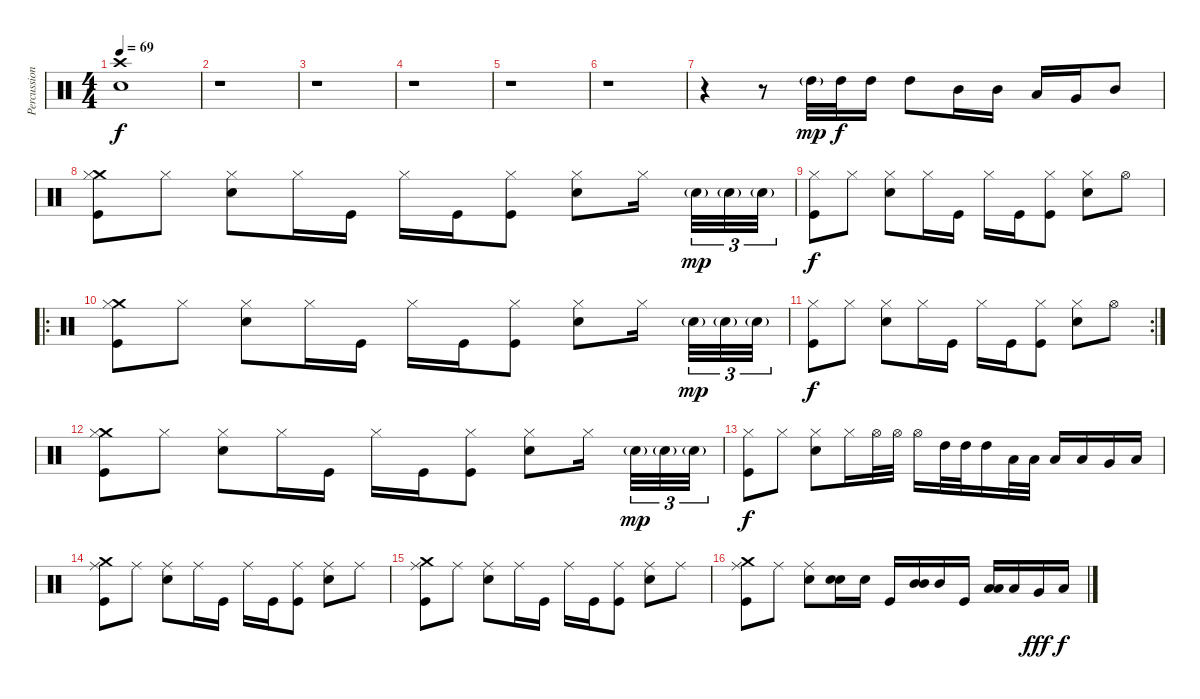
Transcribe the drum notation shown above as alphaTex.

\track ("Percussion" "Percussion") {instrument percussion}
\staff {score}
\articulation defaults
\ts (4 4)
\tempo 69
\clef neutral
\ks c
("Crash high (hit)" "Electric Snare (hit)").1{dy f} |
r.1 |
r.1 |
r.1 |
r.1 |
r.1 |
r.4 r.8 "High Tom (hit)"{g}.32{dy mp} "High Tom (hit)".32{dy f} "High Tom (hit)".16 "High Tom (hit)".8 "Mid Tom (hit)".16 "Mid Tom (hit)".16 "Low Tom (hit)".16 "Very Low Tom (hit)".16 "Mid Tom (hit)".8 |
("Crash medium (hit)" "Kick (hit)" "Hi-Hat (closed)").8 "Hi-Hat (closed)".8 ("Electric Snare (hit)" "Hi-Hat (closed)").8 "Hi-Hat (closed)".16 "Kick (hit)".16 "Hi-Hat (closed)".16 "Kick (hit)".16 ("Kick (hit)" "Hi-Hat (closed)").8 ("Electric Snare (hit)" "Hi-Hat (closed)").8 "Hi-Hat (closed)".16{beam splitsecondary} "Electric Snare (hit)"{g}.32{tu (3 2) dy mp} "Electric Snare (hit)"{g}.32{tu (3 2)} "Electric Snare (hit)"{g}.32{tu (3 2)} |
("Kick (hit)" "Hi-Hat (closed)").8{dy f} "Hi-Hat (closed)".8 ("Electric Snare (hit)" "Hi-Hat (closed)").8 "Hi-Hat (closed)".16 "Kick (hit)".16 "Hi-Hat (closed)".16 "Kick (hit)".16 ("Kick (hit)" "Hi-Hat (closed)").8 ("Electric Snare (hit)" "Hi-Hat (closed)").8 "Hi-Hat (open)".8 |
\ro
("Crash medium (hit)" "Kick (hit)" "Hi-Hat (closed)").8 "Hi-Hat (closed)".8 ("Electric Snare (hit)" "Hi-Hat (closed)").8 "Hi-Hat (closed)".16 "Kick (hit)".16 "Hi-Hat (closed)".16 "Kick (hit)".16 ("Kick (hit)" "Hi-Hat (closed)").8 ("Electric Snare (hit)" "Hi-Hat (closed)").8 "Hi-Hat (closed)".16{beam splitsecondary} "Electric Snare (hit)"{g}.32{tu (3 2) dy mp} "Electric Snare (hit)"{g}.32{tu (3 2)} "Electric Snare (hit)"{g}.32{tu (3 2)} |
\rc 2
("Kick (hit)" "Hi-Hat (closed)").8{dy f} "Hi-Hat (closed)".8 ("Electric Snare (hit)" "Hi-Hat (closed)").8 "Hi-Hat (closed)".16 "Kick (hit)".16 "Hi-Hat (closed)".16 "Kick (hit)".16 ("Kick (hit)" "Hi-Hat (closed)").8 ("Electric Snare (hit)" "Hi-Hat (closed)").8 "Hi-Hat (open)".8 |
("Crash medium (hit)" "Kick (hit)" "Hi-Hat (closed)").8 "Hi-Hat (closed)".8 ("Electric Snare (hit)" "Hi-Hat (closed)").8 "Hi-Hat (closed)".16 "Kick (hit)".16 "Hi-Hat (closed)".16 "Kick (hit)".16 ("Kick (hit)" "Hi-Hat (closed)").8 ("Electric Snare (hit)" "Hi-Hat (closed)").8 "Hi-Hat (closed)".16{beam splitsecondary} "Electric Snare (hit)"{g}.32{tu (3 2) dy mp} "Electric Snare (hit)"{g}.32{tu (3 2)} "Electric Snare (hit)"{g}.32{tu (3 2)} |
("Kick (hit)" "Hi-Hat (closed)").8{dy f} "Hi-Hat (closed)".8 ("Electric Snare (hit)" "Hi-Hat (closed)").8 "Hi-Hat (closed)".16 "Hi-Hat (open)".32 "Hi-Hat (open)".32 "Hi-Hat (open)".16 "High Tom (hit)".32 "High Tom (hit)".32 "High Tom (hit)".16 "Low Tom (hit)".32 "Low Tom (hit)".32 "Low Tom (hit)".16 "Low Tom (hit)".16 "Very Low Tom (hit)".16 "Low Floor Tom (hit)".16 |
("Crash medium (hit)" "Kick (hit)" "Ride (middle)").8 "Ride (middle)".8 ("Electric Snare (hit)" "Ride (middle)").8 "Ride (middle)".16 "Kick (hit)".16 "Ride (middle)".16 "Kick (hit)".16 ("Kick (hit)" "Ride (middle)").8 ("Electric Snare (hit)" "Ride (middle)").8 "Ride (middle)".8 |
("Crash medium (hit)" "Kick (hit)" "Ride (middle)").8 "Ride (middle)".8 ("Electric Snare (hit)" "Ride (middle)").8 "Ride (middle)".16 "Kick (hit)".16 "Ride (middle)".16 "Kick (hit)".16 ("Kick (hit)" "Ride (middle)").8 ("Electric Snare (hit)" "Ride (middle)").8 "Ride (middle)".8 |
("Crash medium (hit)" "Kick (hit)" "Ride (middle)").8 "Ride (middle)".8 ("Electric Snare (hit)" "Ride (middle)").8 ("Electric Snare (hit)" "Electric Snare (hit)").16{bd 60} "Electric Snare (hit)".16 "Kick (hit)".16 ("Mid Tom (hit)" "Mid Tom (hit)").16{bd 240} "Mid Tom (hit)".16 "Kick (hit)".16 ("Low Floor Tom (hit)" "Low Floor Tom (hit)").16{bd 240} "Low Floor Tom (hit)".16 "Very Low Tom (hit)".16{dy fff} "Low Floor Tom (hit)".16{dy f}
